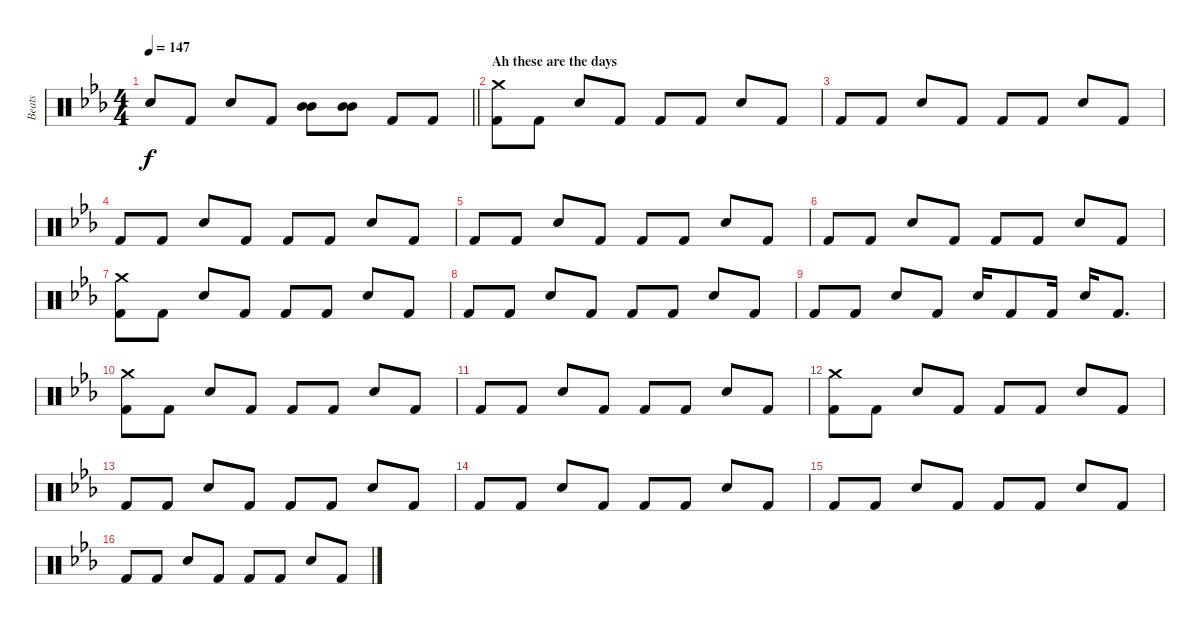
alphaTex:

\track ("Beats" "Beats") {instrument percussion}
\staff {score}
\articulation defaults
\ts (4 4)
\tempo 147
\clef neutral
\barLineRight lightlight
\ks eb "Snare (hit) 2".8{dy f} "Kick (hit) 2".8 "Snare (hit) 2".8 "Kick (hit) 2".8
("Mid Tom (hit)" "Mid Tom (hit)").8 ("Mid Tom (hit)" "Mid Tom (hit)").8 "Kick (hit) 2".8 "Kick (hit) 2".8 |
\section ("" "Ah these are the days")
("Crash medium (hit)" "Kick (hit) 2").8 "Kick (hit) 2".8 "Snare (hit) 2".8 "Kick (hit) 2".8 "Kick (hit) 2".8 "Kick (hit) 2".8 "Snare (hit) 2".8 "Kick (hit) 2".8 |
"Kick (hit) 2".8 "Kick (hit) 2".8 "Snare (hit) 2".8 "Kick (hit) 2".8 "Kick (hit) 2".8 "Kick (hit) 2".8 "Snare (hit) 2".8 "Kick (hit) 2".8 |
"Kick (hit) 2".8 "Kick (hit) 2".8 "Snare (hit) 2".8 "Kick (hit) 2".8 "Kick (hit) 2".8 "Kick (hit) 2".8 "Snare (hit) 2".8 "Kick (hit) 2".8 |
"Kick (hit) 2".8 "Kick (hit) 2".8 "Snare (hit) 2".8 "Kick (hit) 2".8 "Kick (hit) 2".8 "Kick (hit) 2".8 "Snare (hit) 2".8 "Kick (hit) 2".8 |
"Kick (hit) 2".8 "Kick (hit) 2".8 "Snare (hit) 2".8 "Kick (hit) 2".8 "Kick (hit) 2".8 "Kick (hit) 2".8 "Snare (hit) 2".8 "Kick (hit) 2".8 |
("Crash medium (hit)" "Kick (hit) 2").8 "Kick (hit) 2".8 "Snare (hit) 2".8 "Kick (hit) 2".8 "Kick (hit) 2".8 "Kick (hit) 2".8 "Snare (hit) 2".8 "Kick (hit) 2".8 |
"Kick (hit) 2".8 "Kick (hit) 2".8 "Snare (hit) 2".8 "Kick (hit) 2".8 "Kick (hit) 2".8 "Kick (hit) 2".8 "Snare (hit) 2".8 "Kick (hit) 2".8 |
"Kick (hit) 2".8 "Kick (hit) 2".8 "Snare (hit) 2".8 "Kick (hit) 2".8 "Snare (hit) 2".16 "Kick (hit) 2".8 "Kick (hit) 2".16 "Snare (hit) 2".16 "Kick (hit) 2".8{d} |
("Crash medium (hit)" "Kick (hit) 2").8 "Kick (hit) 2".8 "Snare (hit) 2".8 "Kick (hit) 2".8 "Kick (hit) 2".8 "Kick (hit) 2".8 "Snare (hit) 2".8 "Kick (hit) 2".8 |
"Kick (hit) 2".8 "Kick (hit) 2".8 "Snare (hit) 2".8 "Kick (hit) 2".8 "Kick (hit) 2".8 "Kick (hit) 2".8 "Snare (hit) 2".8 "Kick (hit) 2".8 |
("Crash medium (hit)" "Kick (hit) 2").8 "Kick (hit) 2".8 "Snare (hit) 2".8 "Kick (hit) 2".8 "Kick (hit) 2".8 "Kick (hit) 2".8 "Snare (hit) 2".8 "Kick (hit) 2".8 |
"Kick (hit) 2".8 "Kick (hit) 2".8 "Snare (hit) 2".8 "Kick (hit) 2".8 "Kick (hit) 2".8 "Kick (hit) 2".8 "Snare (hit) 2".8 "Kick (hit) 2".8 |
"Kick (hit) 2".8 "Kick (hit) 2".8 "Snare (hit) 2".8 "Kick (hit) 2".8 "Kick (hit) 2".8 "Kick (hit) 2".8 "Snare (hit) 2".8 "Kick (hit) 2".8 |
"Kick (hit) 2".8 "Kick (hit) 2".8 "Snare (hit) 2".8 "Kick (hit) 2".8 "Kick (hit) 2".8 "Kick (hit) 2".8 "Snare (hit) 2".8 "Kick (hit) 2".8 |
"Kick (hit) 2".8 "Kick (hit) 2".8 "Snare (hit) 2".8 "Kick (hit) 2".8 "Kick (hit) 2".8 "Kick (hit) 2".8 "Snare (hit) 2".8 "Kick (hit) 2".8
